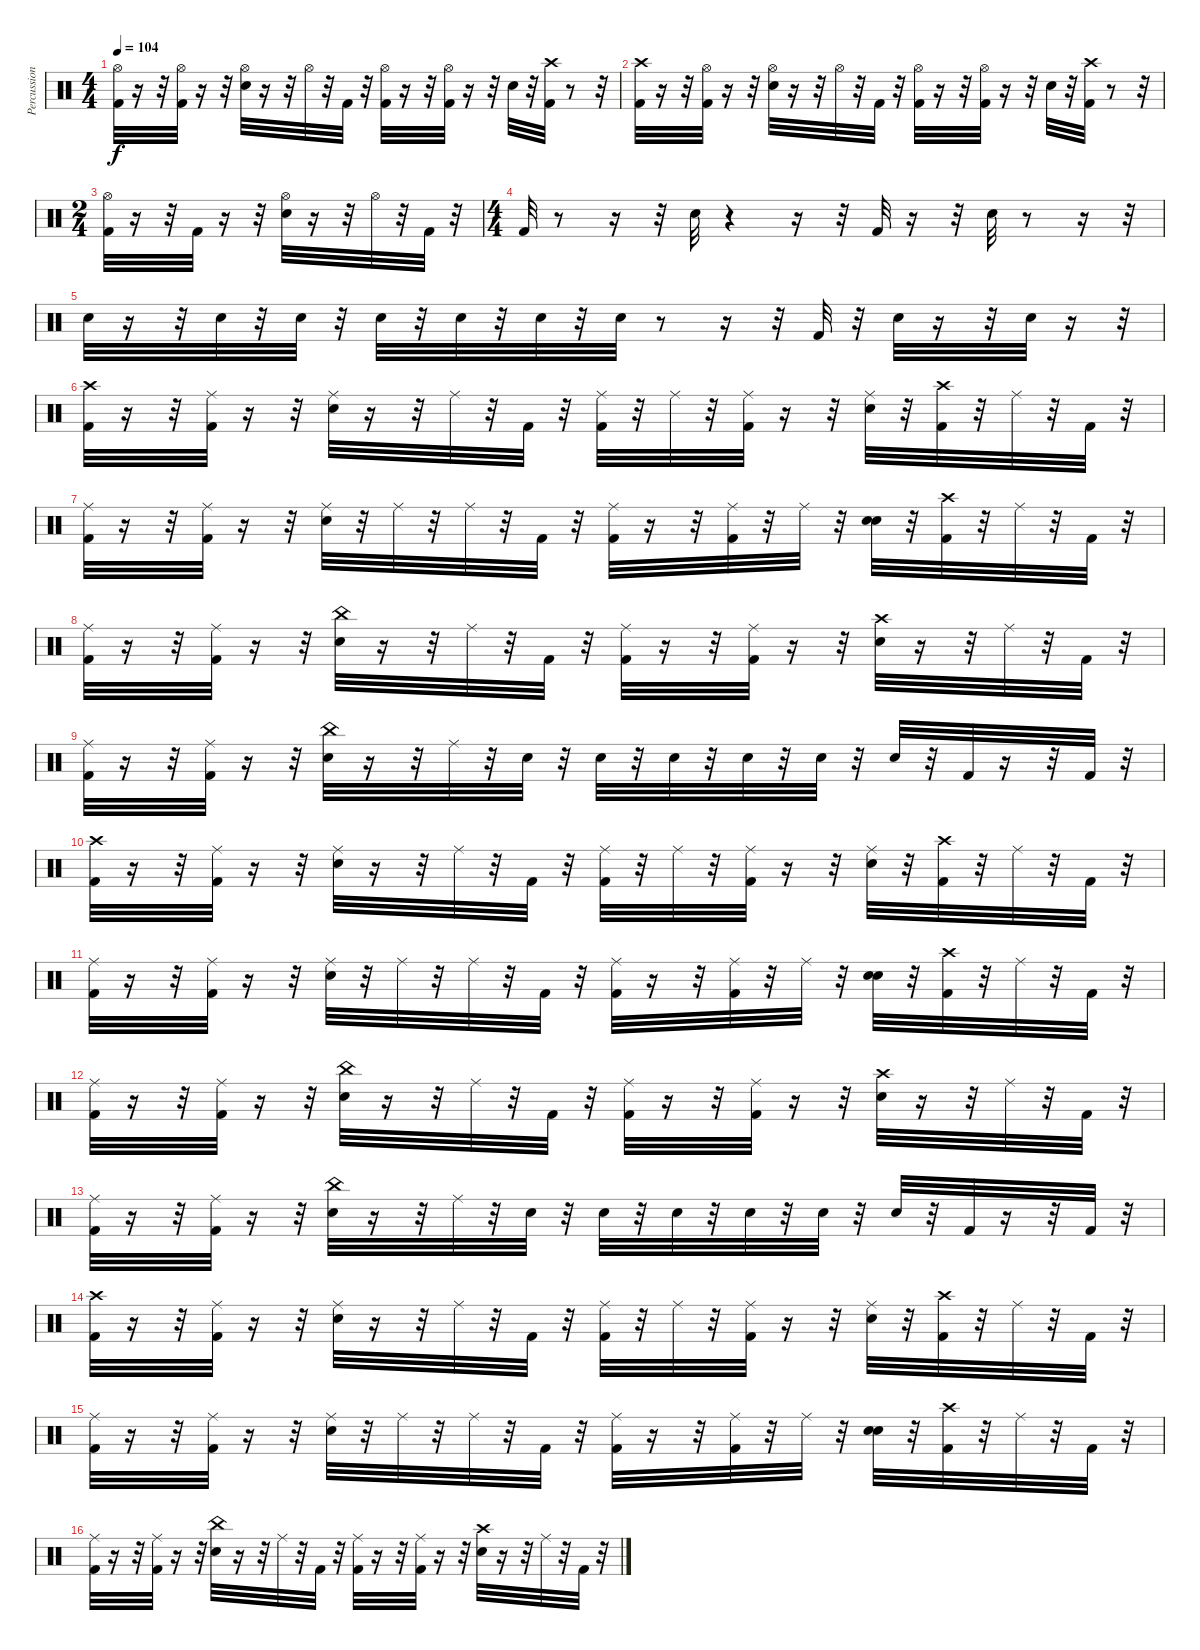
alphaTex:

\track ("Percussions" "Percussion") {instrument percussion}
\staff {score}
\articulation defaults
\ts (4 4)
\tempo 104
\clef neutral
\ks c
("Hi-Hat (open)" "Kick (hit) 2").32{dy f} r.16 r.32 ("Kick (hit) 2" "Hi-Hat (open)").32 r.16 r.32 ("Hi-Hat (open)" "Snare (hit) 2").32 r.16 r.32 "Hi-Hat (open)".32 r.32 "Kick (hit) 2".32 r.32 ("Kick (hit) 2" "Hi-Hat (open)").32 r.16 r.32 ("Kick (hit) 2" "Hi-Hat (open)").32 r.16 r.32 "Snare (hit) 2".32 r.32 ("Kick (hit) 2" "Crash high (hit)").32 r.8 r.32 |
("Crash high (hit)" "Kick (hit) 2").32 r.16 r.32 ("Kick (hit) 2" "Hi-Hat (open)").32 r.16 r.32 ("Snare (hit) 2" "Hi-Hat (open)").32 r.16 r.32 "Hi-Hat (open)".32 r.32 "Kick (hit) 2".32 r.32 ("Kick (hit) 2" "Hi-Hat (open)").32 r.16 r.32 ("Hi-Hat (open)" "Kick (hit) 2").32 r.16 r.32 "Snare (hit) 2".32 r.32 ("Crash high (hit)" "Kick (hit) 2").32 r.8 r.32 |
\ts (2 4)
("Kick (hit) 2" "Hi-Hat (open)").32 r.16 r.32 "Kick (hit) 2".32 r.16 r.32 ("Snare (hit) 2" "Hi-Hat (open)").32 r.16 r.32 "Hi-Hat (open)".32 r.32 "Kick (hit) 2".32 r.32 |
\ts (4 4)
"Kick (hit) 2".32 r.8 r.16 r.32 "Snare (hit) 2".32 r.4 r.16 r.32 "Kick (hit) 2".32 r.16 r.32 "Snare (hit) 2".32 r.8 r.16 r.32 |
"Snare (hit) 2".32 r.16 r.32 "Snare (hit) 2".32 r.32 "Snare (hit) 2".32 r.32 "Snare (hit) 2".32 r.32 "Snare (hit) 2".32 r.32 "Snare (hit) 2".32 r.32 "Snare (hit) 2".32 r.8 r.16 r.32 "Kick (hit) 2".32 r.32 "Snare (hit) 2".32 r.16 r.32 "Snare (hit) 2".32 r.16 r.32 |
("Crash high (hit)" "Kick (hit) 2").32 r.16 r.32 ("Kick (hit) 2" "Ride (middle)").32 r.16 r.32 ("Ride (middle)" "Snare (hit) 2").32 r.16 r.32 "Ride (middle)".32 r.32 "Kick (hit) 2".32 r.32 ("Kick (hit) 2" "Ride (middle)").32 r.32 "Ride (middle)".32 r.32 ("Ride (middle)" "Kick (hit) 2").32 r.16 r.32 ("Snare (hit) 2" "Ride (middle)").32 r.32 ("Crash high (hit)" "Kick (hit) 2").32 r.32 "Ride (middle)".32 r.32 "Kick (hit) 2".32 r.32 |
("Kick (hit) 2" "Ride (middle)").32 r.16 r.32 ("Kick (hit) 2" "Ride (middle)").32 r.16 r.32 ("Snare (hit) 2" "Ride (middle)").32 r.32 "Ride (middle)".32 r.32 "Ride (middle)".32 r.32 "Kick (hit) 2".32 r.32 ("Ride (middle)" "Kick (hit) 2").32 r.16 r.32 ("Kick (hit) 2" "Ride (middle)").32 r.32 "Ride (middle)".32 r.32 ("Electric Snare (hit)" "Snare (hit) 2").32 r.32 ("Kick (hit) 2" "Crash high (hit)").32 r.32 "Ride (middle)".32 r.32 "Kick (hit) 2".32 r.32 |
("Kick (hit) 2" "Ride (middle)").32 r.16 r.32 ("Kick (hit) 2" "Ride (middle)").32 r.16 r.32 ("China (hit)" "Snare (hit) 2").32 r.16 r.32 "Ride (middle)".32 r.32 "Kick (hit) 2".32 r.32 ("Kick (hit) 2" "Ride (middle)").32 r.16 r.32 ("Ride (middle)" "Kick (hit) 2").32 r.16 r.32 ("Snare (hit) 2" "Crash high (hit)").32 r.16 r.32 "Ride (middle)".32 r.32 "Kick (hit) 2".32 r.32 |
("Ride (middle)" "Kick (hit) 2").32 r.16 r.32 ("Kick (hit) 2" "Ride (middle)").32 r.16 r.32 ("Snare (hit) 2" "China (hit)").32 r.16 r.32 "Ride (middle)".32 r.32 "Snare (hit) 2".32 r.32 "Snare (hit) 2".32 r.32 "Snare (hit) 2".32 r.32 "Snare (hit) 2".32 r.32 "Snare (hit) 2".32 r.32 "Snare (hit) 2".32 r.32 "Kick (hit) 2".32 r.16 r.32 "Kick (hit) 2".32 r.32 |
("Crash high (hit)" "Kick (hit) 2").32 r.16 r.32 ("Kick (hit) 2" "Ride (middle)").32 r.16 r.32 ("Ride (middle)" "Snare (hit) 2").32 r.16 r.32 "Ride (middle)".32 r.32 "Kick (hit) 2".32 r.32 ("Kick (hit) 2" "Ride (middle)").32 r.32 "Ride (middle)".32 r.32 ("Ride (middle)" "Kick (hit) 2").32 r.16 r.32 ("Snare (hit) 2" "Ride (middle)").32 r.32 ("Crash high (hit)" "Kick (hit) 2").32 r.32 "Ride (middle)".32 r.32 "Kick (hit) 2".32 r.32 |
("Kick (hit) 2" "Ride (middle)").32 r.16 r.32 ("Kick (hit) 2" "Ride (middle)").32 r.16 r.32 ("Snare (hit) 2" "Ride (middle)").32 r.32 "Ride (middle)".32 r.32 "Ride (middle)".32 r.32 "Kick (hit) 2".32 r.32 ("Ride (middle)" "Kick (hit) 2").32 r.16 r.32 ("Kick (hit) 2" "Ride (middle)").32 r.32 "Ride (middle)".32 r.32 ("Electric Snare (hit)" "Snare (hit) 2").32 r.32 ("Kick (hit) 2" "Crash high (hit)").32 r.32 "Ride (middle)".32 r.32 "Kick (hit) 2".32 r.32 |
("Kick (hit) 2" "Ride (middle)").32 r.16 r.32 ("Kick (hit) 2" "Ride (middle)").32 r.16 r.32 ("China (hit)" "Snare (hit) 2").32 r.16 r.32 "Ride (middle)".32 r.32 "Kick (hit) 2".32 r.32 ("Kick (hit) 2" "Ride (middle)").32 r.16 r.32 ("Ride (middle)" "Kick (hit) 2").32 r.16 r.32 ("Snare (hit) 2" "Crash high (hit)").32 r.16 r.32 "Ride (middle)".32 r.32 "Kick (hit) 2".32 r.32 |
("Ride (middle)" "Kick (hit) 2").32 r.16 r.32 ("Kick (hit) 2" "Ride (middle)").32 r.16 r.32 ("Snare (hit) 2" "China (hit)").32 r.16 r.32 "Ride (middle)".32 r.32 "Snare (hit) 2".32 r.32 "Snare (hit) 2".32 r.32 "Snare (hit) 2".32 r.32 "Snare (hit) 2".32 r.32 "Snare (hit) 2".32 r.32 "Snare (hit) 2".32 r.32 "Kick (hit) 2".32 r.16 r.32 "Kick (hit) 2".32 r.32 |
("Crash high (hit)" "Kick (hit) 2").32 r.16 r.32 ("Kick (hit) 2" "Ride (middle)").32 r.16 r.32 ("Ride (middle)" "Snare (hit) 2").32 r.16 r.32 "Ride (middle)".32 r.32 "Kick (hit) 2".32 r.32 ("Kick (hit) 2" "Ride (middle)").32 r.32 "Ride (middle)".32 r.32 ("Ride (middle)" "Kick (hit) 2").32 r.16 r.32 ("Snare (hit) 2" "Ride (middle)").32 r.32 ("Crash high (hit)" "Kick (hit) 2").32 r.32 "Ride (middle)".32 r.32 "Kick (hit) 2".32 r.32 |
("Kick (hit) 2" "Ride (middle)").32 r.16 r.32 ("Kick (hit) 2" "Ride (middle)").32 r.16 r.32 ("Snare (hit) 2" "Ride (middle)").32 r.32 "Ride (middle)".32 r.32 "Ride (middle)".32 r.32 "Kick (hit) 2".32 r.32 ("Ride (middle)" "Kick (hit) 2").32 r.16 r.32 ("Kick (hit) 2" "Ride (middle)").32 r.32 "Ride (middle)".32 r.32 ("Electric Snare (hit)" "Snare (hit) 2").32 r.32 ("Kick (hit) 2" "Crash high (hit)").32 r.32 "Ride (middle)".32 r.32 "Kick (hit) 2".32 r.32 |
("Kick (hit) 2" "Ride (middle)").32 r.16 r.32 ("Kick (hit) 2" "Ride (middle)").32 r.16 r.32 ("China (hit)" "Snare (hit) 2").32 r.16 r.32 "Ride (middle)".32 r.32 "Kick (hit) 2".32 r.32 ("Kick (hit) 2" "Ride (middle)").32 r.16 r.32 ("Ride (middle)" "Kick (hit) 2").32 r.16 r.32 ("Snare (hit) 2" "Crash high (hit)").32 r.16 r.32 "Ride (middle)".32 r.32 "Kick (hit) 2".32 r.32
